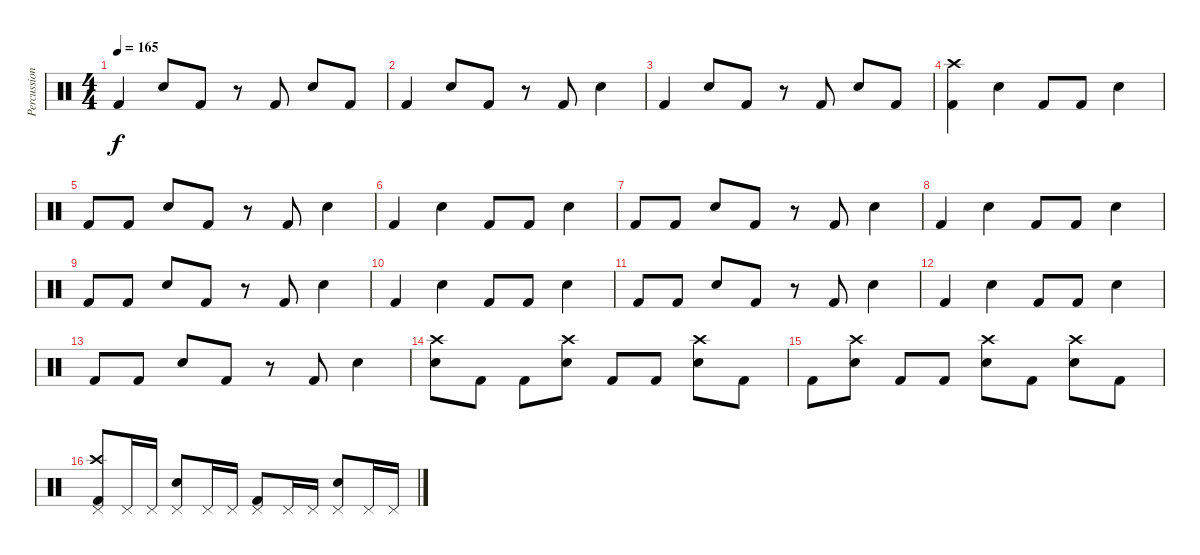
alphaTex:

\track ("Percussion" "Percussion") {instrument percussion}
\staff {score}
\articulation defaults
\ts (4 4)
\tempo 165
\clef neutral
\ks c "Kick (hit) 2".4{dy f} "Snare (hit) 2".8 "Kick (hit) 2".8
r.8 "Kick (hit) 2".8 "Snare (hit) 2".8 "Kick (hit) 2".8 |
"Kick (hit) 2".4 "Snare (hit) 2".8 "Kick (hit) 2".8 r.8 "Kick (hit) 2".8 "Snare (hit) 2".4 |
"Kick (hit) 2".4 "Snare (hit) 2".8 "Kick (hit) 2".8 r.8 "Kick (hit) 2".8 "Snare (hit) 2".8 "Kick (hit) 2".8 |
("Kick (hit) 2" "Crash high (hit)").4 "Snare (hit) 2".4 "Kick (hit) 2".8 "Kick (hit) 2".8 "Snare (hit) 2".4 |
"Kick (hit) 2".8 "Kick (hit) 2".8 "Snare (hit) 2".8 "Kick (hit) 2".8 r.8 "Kick (hit) 2".8 "Snare (hit) 2".4 |
"Kick (hit) 2".4 "Snare (hit) 2".4 "Kick (hit) 2".8 "Kick (hit) 2".8 "Snare (hit) 2".4 |
"Kick (hit) 2".8 "Kick (hit) 2".8 "Snare (hit) 2".8 "Kick (hit) 2".8 r.8 "Kick (hit) 2".8 "Snare (hit) 2".4 |
"Kick (hit) 2".4 "Snare (hit) 2".4 "Kick (hit) 2".8 "Kick (hit) 2".8 "Snare (hit) 2".4 |
"Kick (hit) 2".8 "Kick (hit) 2".8 "Snare (hit) 2".8 "Kick (hit) 2".8 r.8 "Kick (hit) 2".8 "Snare (hit) 2".4 |
"Kick (hit) 2".4 "Snare (hit) 2".4 "Kick (hit) 2".8 "Kick (hit) 2".8 "Snare (hit) 2".4 |
"Kick (hit) 2".8 "Kick (hit) 2".8 "Snare (hit) 2".8 "Kick (hit) 2".8 r.8 "Kick (hit) 2".8 "Snare (hit) 2".4 |
"Kick (hit) 2".4 "Snare (hit) 2".4 "Kick (hit) 2".8 "Kick (hit) 2".8 "Snare (hit) 2".4 |
"Kick (hit) 2".8 "Kick (hit) 2".8 "Snare (hit) 2".8 "Kick (hit) 2".8 r.8 "Kick (hit) 2".8 "Snare (hit) 2".4 |
("Crash high (hit)" "Snare (hit) 2").8 "Kick (hit) 2".8 "Kick (hit) 2".8 ("Crash high (hit)" "Snare (hit) 2").8 "Kick (hit) 2".8 "Kick (hit) 2".8 ("Crash high (hit)" "Snare (hit) 2").8 "Kick (hit) 2".8 |
"Kick (hit) 2".8 ("Crash high (hit)" "Snare (hit) 2").8 "Kick (hit) 2".8 "Kick (hit) 2".8 ("Crash high (hit)" "Snare (hit) 2").8 "Kick (hit) 2".8 ("Crash high (hit)" "Snare (hit) 2").8 "Kick (hit) 2".8 |
("Pedal Hi-Hat (hit)" "Kick (hit) 2" "Crash high (hit)").8 "Pedal Hi-Hat (hit)".16 "Pedal Hi-Hat (hit)".16 ("Pedal Hi-Hat (hit)" "Snare (hit) 2").8 "Pedal Hi-Hat (hit)".16 "Pedal Hi-Hat (hit)".16 ("Pedal Hi-Hat (hit)" "Kick (hit) 2").8 "Pedal Hi-Hat (hit)".16 "Pedal Hi-Hat (hit)".16 ("Pedal Hi-Hat (hit)" "Snare (hit) 2").8 "Pedal Hi-Hat (hit)".16 "Pedal Hi-Hat (hit)".16
